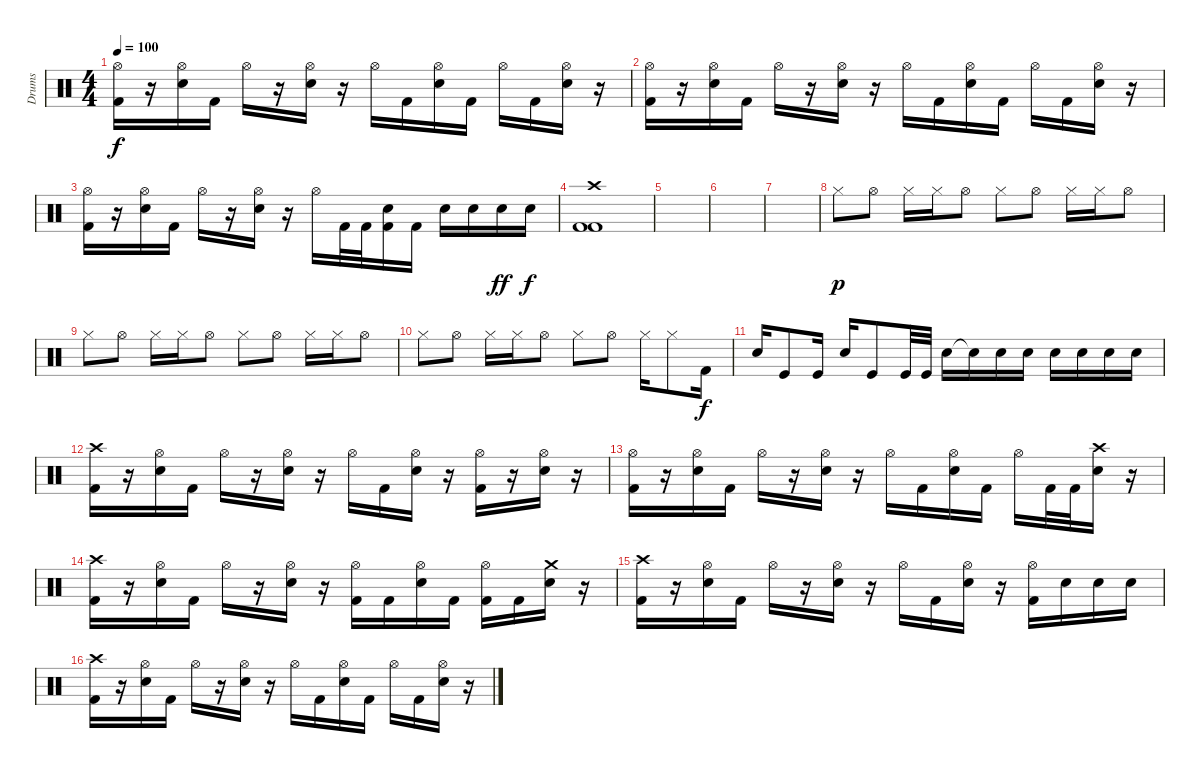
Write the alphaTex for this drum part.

\track ("Drums" "Drums") {instrument percussion}
\staff {score}
\articulation defaults
\ts (4 4)
\tempo 100
\clef neutral
\ks c
("Hi-Hat (open)" "Kick (hit) 2").16{dy f} r.16 ("Hi-Hat (open)" "Electric Snare (hit)").16 "Kick (hit) 2".16 "Hi-Hat (open)".16 r.16 ("Hi-Hat (open)" "Electric Snare (hit)").16 r.16 "Hi-Hat (open)".16 "Kick (hit) 2".16 ("Hi-Hat (open)" "Electric Snare (hit)").16 "Kick (hit) 2".16 "Hi-Hat (open)".16 "Kick (hit) 2".16 ("Hi-Hat (open)" "Electric Snare (hit)").16 r.16 |
("Hi-Hat (open)" "Kick (hit) 2").16 r.16 ("Hi-Hat (open)" "Electric Snare (hit)").16 "Kick (hit) 2".16 "Hi-Hat (open)".16 r.16 ("Hi-Hat (open)" "Electric Snare (hit)").16 r.16 "Hi-Hat (open)".16 "Kick (hit) 2".16 ("Hi-Hat (open)" "Electric Snare (hit)").16 "Kick (hit) 2".16 "Hi-Hat (open)".16 "Kick (hit) 2".16 ("Hi-Hat (open)" "Electric Snare (hit)").16 r.16 |
("Hi-Hat (open)" "Kick (hit) 2").16 r.16 ("Hi-Hat (open)" "Electric Snare (hit)").16 "Kick (hit) 2".16 "Hi-Hat (open)".16 r.16 ("Hi-Hat (open)" "Electric Snare (hit)").16 r.16 "Hi-Hat (open)".16 "Kick (hit) 2".32 "Kick (hit) 2".32 ("Electric Snare (hit)" "Kick (hit) 2").16 "Kick (hit) 2".16 "Electric Snare (hit)".16 "Electric Snare (hit)".16 "Electric Snare (hit)".16{dy ff} "Electric Snare (hit)".16{dy f} |
("Crash high (hit)" "Kick (hit) 2" "Kick (hit) 2").1 |
|
|
|
"Hi-Hat (closed)".8{dy p} "Hi-Hat (open)".8 "Hi-Hat (closed)".16 "Hi-Hat (closed)".16 "Hi-Hat (open)".8 "Hi-Hat (closed)".8 "Hi-Hat (open)".8 "Hi-Hat (closed)".16 "Hi-Hat (closed)".16 "Hi-Hat (open)".8 |
"Hi-Hat (closed)".8 "Hi-Hat (open)".8 "Hi-Hat (closed)".16 "Hi-Hat (closed)".16 "Hi-Hat (open)".8 "Hi-Hat (closed)".8 "Hi-Hat (open)".8 "Hi-Hat (closed)".16 "Hi-Hat (closed)".16 "Hi-Hat (open)".8 |
"Hi-Hat (closed)".8 "Hi-Hat (open)".8 "Hi-Hat (closed)".16 "Hi-Hat (closed)".16 "Hi-Hat (open)".8 "Hi-Hat (closed)".8 "Hi-Hat (open)".8 "Hi-Hat (closed)".16 "Hi-Hat (closed)".8 "Kick (hit) 2".16{dy f} |
"Snare (hit) 2".16 "Kick (hit)".8 "Kick (hit)".16 "Snare (hit) 2".16 "Kick (hit)".8 "Kick (hit)".32 "Kick (hit)".32 "Snare (hit) 2".16 "Electric Snare (hit)"{t}.16 "Snare (hit) 2".16 "Snare (hit) 2".16 "Snare (hit) 2".16 "Snare (hit) 2".16 "Snare (hit) 2".16 "Snare (hit) 2".16 |
("Crash high (hit)" "Kick (hit) 2").16 r.16 ("Hi-Hat (open)" "Electric Snare (hit)").16 "Kick (hit) 2".16 "Hi-Hat (open)".16 r.16 ("Hi-Hat (open)" "Electric Snare (hit)").16 r.16 "Hi-Hat (open)".16 "Kick (hit) 2".16 ("Hi-Hat (open)" "Electric Snare (hit)").16 r.16 ("Hi-Hat (open)" "Kick (hit) 2").16 r.16 ("Hi-Hat (open)" "Electric Snare (hit)").16 r.16 |
("Hi-Hat (open)" "Kick (hit) 2").16 r.16 ("Hi-Hat (open)" "Electric Snare (hit)").16 "Kick (hit) 2".16 "Hi-Hat (open)".16 r.16 ("Hi-Hat (open)" "Electric Snare (hit)").16 r.16 "Hi-Hat (open)".16 "Kick (hit) 2".16 ("Hi-Hat (open)" "Electric Snare (hit)").16 "Kick (hit) 2".16 "Hi-Hat (open)".16 "Kick (hit) 2".32 "Kick (hit) 2".32 ("Crash high (hit)" "Electric Snare (hit)").16 r.16 |
("Crash high (hit)" "Kick (hit) 2").16 r.16 ("Hi-Hat (open)" "Electric Snare (hit)").16 "Kick (hit) 2".16 "Hi-Hat (open)".16 r.16 ("Hi-Hat (open)" "Electric Snare (hit)").16 r.16 ("Hi-Hat (open)" "Kick (hit) 2").16 "Kick (hit) 2".16 ("Hi-Hat (open)" "Electric Snare (hit)").16 "Kick (hit) 2".16 ("Hi-Hat (open)" "Kick (hit) 2").16 "Kick (hit) 2".16 ("Crash medium (hit)" "Electric Snare (hit)").16 r.16 |
("Crash high (hit)" "Kick (hit) 2").16 r.16 ("Hi-Hat (open)" "Electric Snare (hit)").16 "Kick (hit) 2".16 "Hi-Hat (open)".16 r.16 ("Hi-Hat (open)" "Electric Snare (hit)").16 r.16 "Hi-Hat (open)".16 "Kick (hit) 2".16 ("Hi-Hat (open)" "Electric Snare (hit)").16 r.16 ("Hi-Hat (open)" "Kick (hit) 2").16 "Electric Snare (hit)".16 "Electric Snare (hit)".16 "Electric Snare (hit)".16 |
("Crash high (hit)" "Kick (hit) 2").16 r.16 ("Hi-Hat (open)" "Electric Snare (hit)").16 "Kick (hit) 2".16 "Hi-Hat (open)".16 r.16 ("Hi-Hat (open)" "Electric Snare (hit)").16 r.16 "Hi-Hat (open)".16 "Kick (hit) 2".16 ("Hi-Hat (open)" "Electric Snare (hit)").16 "Kick (hit) 2".16 "Hi-Hat (open)".16 "Kick (hit) 2".16 ("Hi-Hat (open)" "Electric Snare (hit)").16 r.16
